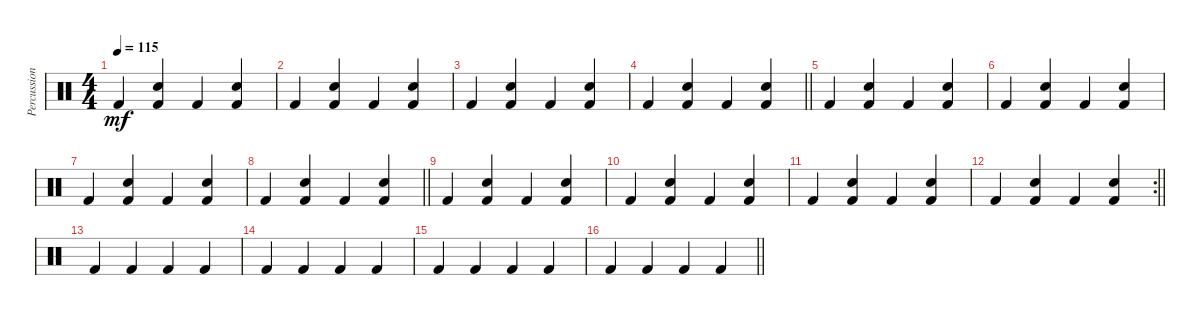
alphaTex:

\track ("Percussion" "Percussion") {instrument percussion}
\staff {score}
\articulation defaults
\ts (4 4)
\tempo 115
\clef neutral
\ks c "Kick (hit) 2".4{dy mf}
("Kick (hit) 2" "Snare (hit) 2").4 "Kick (hit) 2".4 ("Kick (hit) 2" "Snare (hit) 2").4 |
"Kick (hit) 2".4 ("Kick (hit) 2" "Snare (hit) 2").4 "Kick (hit) 2".4 ("Kick (hit) 2" "Snare (hit) 2").4 |
"Kick (hit) 2".4 ("Kick (hit) 2" "Snare (hit) 2").4 "Kick (hit) 2".4 ("Kick (hit) 2" "Snare (hit) 2").4 |
\barLineRight lightlight "Kick (hit) 2".4
("Kick (hit) 2" "Snare (hit) 2").4 "Kick (hit) 2".4 ("Kick (hit) 2" "Snare (hit) 2").4 |
"Kick (hit) 2".4 ("Kick (hit) 2" "Snare (hit) 2").4 "Kick (hit) 2".4 ("Kick (hit) 2" "Snare (hit) 2").4 |
"Kick (hit) 2".4 ("Kick (hit) 2" "Snare (hit) 2").4 "Kick (hit) 2".4 ("Kick (hit) 2" "Snare (hit) 2").4 |
"Kick (hit) 2".4 ("Kick (hit) 2" "Snare (hit) 2").4 "Kick (hit) 2".4 ("Kick (hit) 2" "Snare (hit) 2").4 |
\barLineRight lightlight "Kick (hit) 2".4
("Kick (hit) 2" "Snare (hit) 2").4 "Kick (hit) 2".4 ("Kick (hit) 2" "Snare (hit) 2").4 |
"Kick (hit) 2".4 ("Kick (hit) 2" "Snare (hit) 2").4 "Kick (hit) 2".4 ("Kick (hit) 2" "Snare (hit) 2").4 |
"Kick (hit) 2".4 ("Kick (hit) 2" "Snare (hit) 2").4 "Kick (hit) 2".4 ("Kick (hit) 2" "Snare (hit) 2").4 |
"Kick (hit) 2".4 ("Kick (hit) 2" "Snare (hit) 2").4 "Kick (hit) 2".4 ("Kick (hit) 2" "Snare (hit) 2").4 |
\rc 2
\barLineRight lightlight "Kick (hit) 2".4
("Kick (hit) 2" "Snare (hit) 2").4 "Kick (hit) 2".4 ("Kick (hit) 2" "Snare (hit) 2").4 |
"Kick (hit) 2".4 "Kick (hit) 2".4 "Kick (hit) 2".4 "Kick (hit) 2".4 |
"Kick (hit) 2".4 "Kick (hit) 2".4 "Kick (hit) 2".4 "Kick (hit) 2".4 |
"Kick (hit) 2".4 "Kick (hit) 2".4 "Kick (hit) 2".4 "Kick (hit) 2".4 |
\barLineRight lightlight "Kick (hit) 2".4 "Kick (hit) 2".4 "Kick (hit) 2".4 "Kick (hit) 2".4
